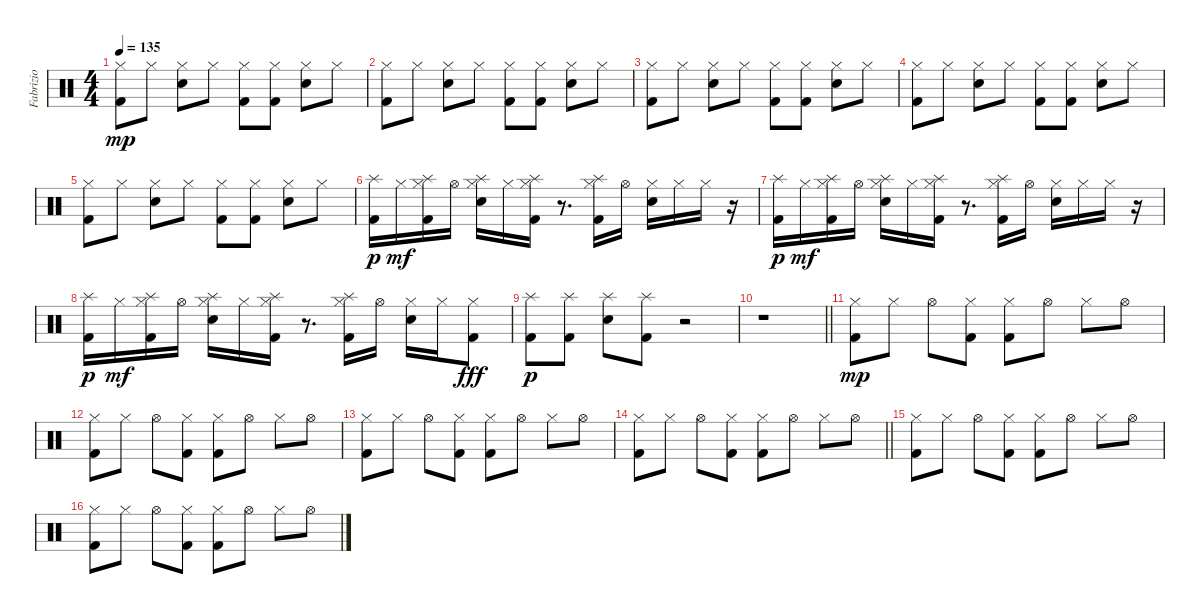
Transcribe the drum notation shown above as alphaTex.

\track ("Fabrizio" "Fabrizio") {instrument percussion}
\staff {score}
\articulation defaults
\ts (4 4)
\tempo 135
\clef neutral
\ks c
("Hi-Hat (closed)" "Kick (hit) 2").8{dy mp} "Hi-Hat (closed)".8 ("Hi-Hat (closed)" "Electric Snare (hit)").8 "Hi-Hat (closed)".8 ("Hi-Hat (closed)" "Kick (hit) 2").8 ("Hi-Hat (closed)" "Kick (hit) 2").8 ("Hi-Hat (closed)" "Electric Snare (hit)").8 "Hi-Hat (closed)".8 |
("Hi-Hat (closed)" "Kick (hit) 2").8 "Hi-Hat (closed)".8 ("Hi-Hat (closed)" "Electric Snare (hit)").8 "Hi-Hat (closed)".8 ("Hi-Hat (closed)" "Kick (hit) 2").8 ("Hi-Hat (closed)" "Kick (hit) 2").8 ("Hi-Hat (closed)" "Electric Snare (hit)").8 "Hi-Hat (closed)".8 |
("Hi-Hat (closed)" "Kick (hit) 2").8 "Hi-Hat (closed)".8 ("Hi-Hat (closed)" "Electric Snare (hit)").8 "Hi-Hat (closed)".8 ("Hi-Hat (closed)" "Kick (hit) 2").8 ("Hi-Hat (closed)" "Kick (hit) 2").8 ("Hi-Hat (closed)" "Electric Snare (hit)").8 "Hi-Hat (closed)".8 |
("Hi-Hat (closed)" "Kick (hit) 2").8 "Hi-Hat (closed)".8 ("Hi-Hat (closed)" "Electric Snare (hit)").8 "Hi-Hat (closed)".8 ("Hi-Hat (closed)" "Kick (hit) 2").8 ("Hi-Hat (closed)" "Kick (hit) 2").8 ("Hi-Hat (closed)" "Electric Snare (hit)").8 "Hi-Hat (closed)".8 |
("Hi-Hat (closed)" "Kick (hit) 2").8 "Hi-Hat (closed)".8 ("Hi-Hat (closed)" "Electric Snare (hit)").8 "Hi-Hat (closed)".8 ("Hi-Hat (closed)" "Kick (hit) 2").8 ("Hi-Hat (closed)" "Kick (hit) 2").8 ("Hi-Hat (closed)" "Electric Snare (hit)").8 "Hi-Hat (closed)".8 |
("Splash (hit)" "Kick (hit) 2").16{dy p} "Hi-Hat (closed)".16{dy mf} ("Splash (hit)" "Hi-Hat (closed)" "Kick (hit) 2").16 "Hi-Hat (open)".16 ("Splash (hit)" "Hi-Hat (closed)" "Electric Snare (hit)").16 "Hi-Hat (closed)".16 ("Splash (hit)" "Hi-Hat (closed)" "Kick (hit) 2").16 r.8{d} ("Splash (hit)" "Hi-Hat (closed)" "Kick (hit) 2").16 "Hi-Hat (open)".16 ("Hi-Hat (closed)" "Electric Snare (hit)").16 "Hi-Hat (closed)".16 "Hi-Hat (closed)".16 r.16 |
("Splash (hit)" "Kick (hit) 2").16{dy p} "Hi-Hat (closed)".16{dy mf} ("Splash (hit)" "Hi-Hat (closed)" "Kick (hit) 2").16 "Hi-Hat (open)".16 ("Splash (hit)" "Hi-Hat (closed)" "Electric Snare (hit)").16 "Hi-Hat (closed)".16 ("Splash (hit)" "Hi-Hat (closed)" "Kick (hit) 2").16 r.8{d} ("Splash (hit)" "Hi-Hat (closed)" "Kick (hit) 2").16 "Hi-Hat (open)".16 ("Hi-Hat (closed)" "Electric Snare (hit)").16 "Hi-Hat (closed)".16 "Hi-Hat (closed)".16 r.16 |
("Splash (hit)" "Kick (hit) 2").16{dy p} "Hi-Hat (closed)".16{dy mf} ("Splash (hit)" "Hi-Hat (closed)" "Kick (hit) 2").16 "Hi-Hat (open)".16 ("Splash (hit)" "Hi-Hat (closed)" "Electric Snare (hit)").16 "Hi-Hat (closed)".16 ("Splash (hit)" "Hi-Hat (closed)" "Kick (hit) 2").16 r.8{d} ("Splash (hit)" "Hi-Hat (closed)" "Kick (hit) 2").16 "Hi-Hat (open)".16 ("Hi-Hat (closed)" "Electric Snare (hit)").16 "Hi-Hat (closed)".16 ("Hi-Hat (closed)" "Kick (hit) 2").8{dy fff} |
("Splash (hit)" "Kick (hit) 2").8{dy p} ("Splash (hit)" "Kick (hit) 2").8 ("Splash (hit)" "Electric Snare (hit)").8 ("Splash (hit)" "Kick (hit) 2").8 r.2 |
\barLineRight lightlight
r.1 |
("Hi-Hat (closed)" "Kick (hit) 2").8{dy mp} "Hi-Hat (closed)".8 "Hi-Hat (open)".8 ("Hi-Hat (closed)" "Kick (hit) 2").8 ("Hi-Hat (closed)" "Kick (hit) 2").8 "Hi-Hat (open)".8 "Hi-Hat (closed)".8 "Hi-Hat (open)".8 |
("Hi-Hat (closed)" "Kick (hit) 2").8 "Hi-Hat (closed)".8 "Hi-Hat (open)".8 ("Hi-Hat (closed)" "Kick (hit) 2").8 ("Hi-Hat (closed)" "Kick (hit) 2").8 "Hi-Hat (open)".8 "Hi-Hat (closed)".8 "Hi-Hat (open)".8 |
("Hi-Hat (closed)" "Kick (hit) 2").8 "Hi-Hat (closed)".8 "Hi-Hat (open)".8 ("Hi-Hat (closed)" "Kick (hit) 2").8 ("Hi-Hat (closed)" "Kick (hit) 2").8 "Hi-Hat (open)".8 "Hi-Hat (closed)".8 "Hi-Hat (open)".8 |
\barLineRight lightlight
("Hi-Hat (closed)" "Kick (hit) 2").8 "Hi-Hat (closed)".8 "Hi-Hat (open)".8 ("Hi-Hat (closed)" "Kick (hit) 2").8 ("Hi-Hat (closed)" "Kick (hit) 2").8 "Hi-Hat (open)".8 "Hi-Hat (closed)".8 "Hi-Hat (open)".8 |
("Hi-Hat (closed)" "Kick (hit) 2").8 "Hi-Hat (closed)".8 "Hi-Hat (open)".8 ("Hi-Hat (closed)" "Kick (hit) 2").8 ("Hi-Hat (closed)" "Kick (hit) 2").8 "Hi-Hat (open)".8 "Hi-Hat (closed)".8 "Hi-Hat (open)".8 |
("Hi-Hat (closed)" "Kick (hit) 2").8 "Hi-Hat (closed)".8 "Hi-Hat (open)".8 ("Hi-Hat (closed)" "Kick (hit) 2").8 ("Hi-Hat (closed)" "Kick (hit) 2").8 "Hi-Hat (open)".8 "Hi-Hat (closed)".8 "Hi-Hat (open)".8
